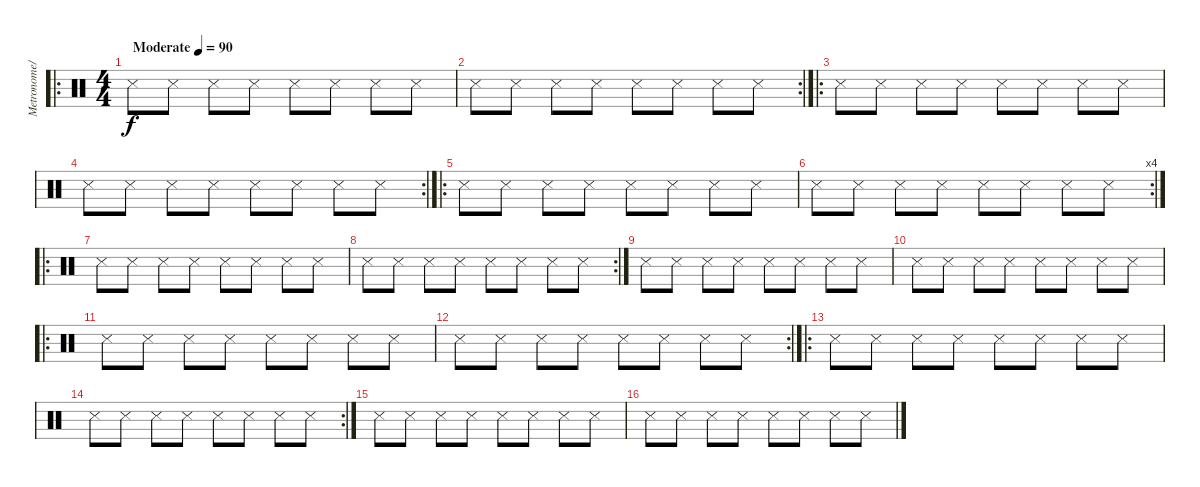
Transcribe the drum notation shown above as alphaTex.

\track ("Metronome/Drums" "Metronome/") {instrument percussion}
\staff {score}
\articulation defaults
\ro
\ts (4 4)
\tempo (90 "Moderate")
\clef neutral
\ks c "Snare (side stick) 3".8{dy f} "Snare (side stick) 3".8 "Snare (side stick) 3".8 "Snare (side stick) 3".8 "Snare (side stick) 3".8 "Snare (side stick) 3".8 "Snare (side stick) 3".8 "Snare (side stick) 3".8
|
\rc 2 "Snare (side stick) 3".8 "Snare (side stick) 3".8 "Snare (side stick) 3".8 "Snare (side stick) 3".8 "Snare (side stick) 3".8 "Snare (side stick) 3".8 "Snare (side stick) 3".8 "Snare (side stick) 3".8
|
\ro "Snare (side stick) 3".8 "Snare (side stick) 3".8 "Snare (side stick) 3".8 "Snare (side stick) 3".8 "Snare (side stick) 3".8 "Snare (side stick) 3".8 "Snare (side stick) 3".8 "Snare (side stick) 3".8
|
\rc 2 "Snare (side stick) 3".8 "Snare (side stick) 3".8 "Snare (side stick) 3".8 "Snare (side stick) 3".8 "Snare (side stick) 3".8 "Snare (side stick) 3".8 "Snare (side stick) 3".8 "Snare (side stick) 3".8
|
\ro "Snare (side stick) 3".8 "Snare (side stick) 3".8 "Snare (side stick) 3".8 "Snare (side stick) 3".8 "Snare (side stick) 3".8 "Snare (side stick) 3".8 "Snare (side stick) 3".8 "Snare (side stick) 3".8
|
\rc 4 "Snare (side stick) 3".8 "Snare (side stick) 3".8 "Snare (side stick) 3".8 "Snare (side stick) 3".8 "Snare (side stick) 3".8 "Snare (side stick) 3".8 "Snare (side stick) 3".8 "Snare (side stick) 3".8
|
\ro "Snare (side stick) 3".8 "Snare (side stick) 3".8 "Snare (side stick) 3".8 "Snare (side stick) 3".8 "Snare (side stick) 3".8 "Snare (side stick) 3".8 "Snare (side stick) 3".8 "Snare (side stick) 3".8
|
\rc 2 "Snare (side stick) 3".8 "Snare (side stick) 3".8 "Snare (side stick) 3".8 "Snare (side stick) 3".8 "Snare (side stick) 3".8 "Snare (side stick) 3".8 "Snare (side stick) 3".8 "Snare (side stick) 3".8
|
"Snare (side stick) 3".8 "Snare (side stick) 3".8 "Snare (side stick) 3".8 "Snare (side stick) 3".8 "Snare (side stick) 3".8 "Snare (side stick) 3".8 "Snare (side stick) 3".8 "Snare (side stick) 3".8 |
"Snare (side stick) 3".8 "Snare (side stick) 3".8 "Snare (side stick) 3".8 "Snare (side stick) 3".8 "Snare (side stick) 3".8 "Snare (side stick) 3".8 "Snare (side stick) 3".8 "Snare (side stick) 3".8 |
\ro "Snare (side stick) 3".8 "Snare (side stick) 3".8 "Snare (side stick) 3".8 "Snare (side stick) 3".8 "Snare (side stick) 3".8 "Snare (side stick) 3".8 "Snare (side stick) 3".8 "Snare (side stick) 3".8
|
\rc 2 "Snare (side stick) 3".8 "Snare (side stick) 3".8 "Snare (side stick) 3".8 "Snare (side stick) 3".8 "Snare (side stick) 3".8 "Snare (side stick) 3".8 "Snare (side stick) 3".8 "Snare (side stick) 3".8
|
\ro "Snare (side stick) 3".8 "Snare (side stick) 3".8 "Snare (side stick) 3".8 "Snare (side stick) 3".8 "Snare (side stick) 3".8 "Snare (side stick) 3".8 "Snare (side stick) 3".8 "Snare (side stick) 3".8
|
\rc 2 "Snare (side stick) 3".8 "Snare (side stick) 3".8 "Snare (side stick) 3".8 "Snare (side stick) 3".8 "Snare (side stick) 3".8 "Snare (side stick) 3".8 "Snare (side stick) 3".8 "Snare (side stick) 3".8
|
"Snare (side stick) 3".8 "Snare (side stick) 3".8 "Snare (side stick) 3".8 "Snare (side stick) 3".8 "Snare (side stick) 3".8 "Snare (side stick) 3".8 "Snare (side stick) 3".8 "Snare (side stick) 3".8 |
"Snare (side stick) 3".8 "Snare (side stick) 3".8 "Snare (side stick) 3".8 "Snare (side stick) 3".8 "Snare (side stick) 3".8 "Snare (side stick) 3".8 "Snare (side stick) 3".8 "Snare (side stick) 3".8
